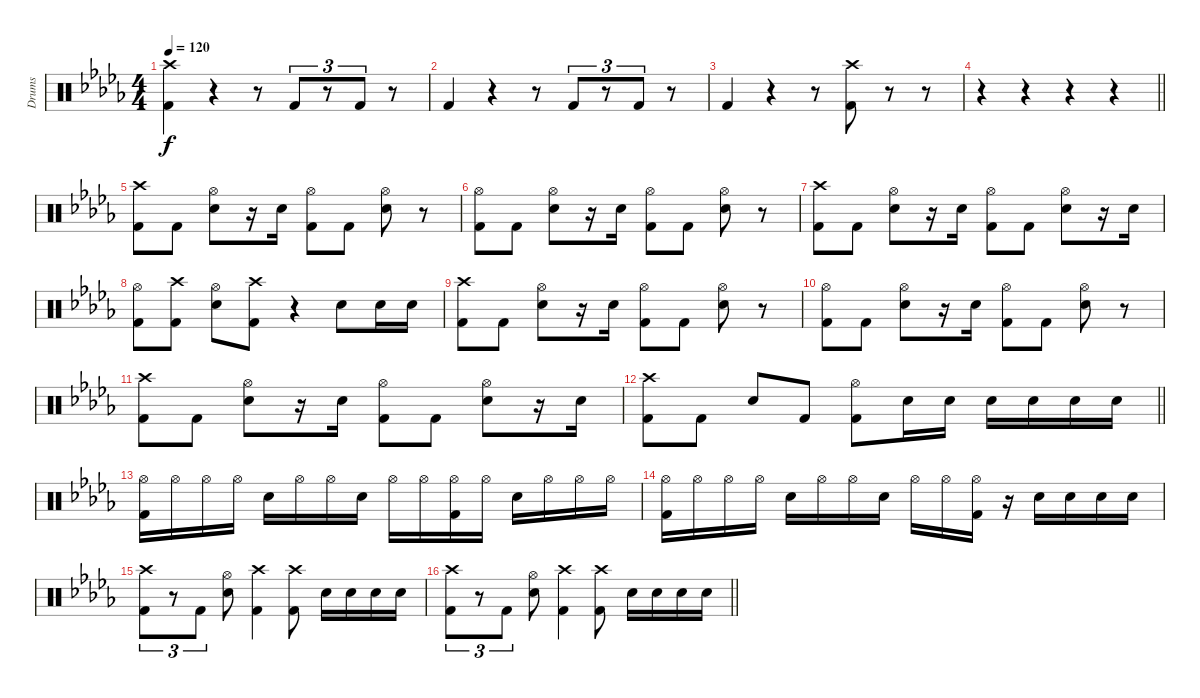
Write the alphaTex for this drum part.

\track ("Drums" "Drums") {instrument percussion}
\staff {score}
\articulation defaults
\ts (4 4)
\tempo 120
\clef neutral
\ks db
("Crash high (hit)" "Kick (hit) 2").4{dy f} r.4 r.8 "Kick (hit) 2".8{tu (3 2)} r.8{tu (3 2)} "Kick (hit) 2".8{tu (3 2)} r.8 |
"Kick (hit) 2".4 r.4 r.8 "Kick (hit) 2".8{tu (3 2)} r.8{tu (3 2)} "Kick (hit) 2".8{tu (3 2)} r.8 |
"Kick (hit) 2".4 r.4 r.8 ("Crash high (hit)" "Kick (hit) 2").8 r.8 r.8 |
\barLineRight lightlight
r.4 r.4 r.4 r.4 |
("Crash high (hit)" "Kick (hit) 2").8 "Kick (hit) 2".8 ("Hi-Hat (open)" "Snare (hit) 2").8 r.16 "Snare (hit) 2".16 ("Hi-Hat (open)" "Kick (hit) 2").8 "Kick (hit) 2".8 ("Hi-Hat (open)" "Snare (hit) 2").8 r.8 |
("Hi-Hat (open)" "Kick (hit) 2").8 "Kick (hit) 2".8 ("Hi-Hat (open)" "Snare (hit) 2").8 r.16 "Snare (hit) 2".16 ("Hi-Hat (open)" "Kick (hit) 2").8 "Kick (hit) 2".8 ("Hi-Hat (open)" "Snare (hit) 2").8 r.8 |
("Crash high (hit)" "Kick (hit) 2").8 "Kick (hit) 2".8 ("Hi-Hat (open)" "Snare (hit) 2").8 r.16 "Snare (hit) 2".16 ("Hi-Hat (open)" "Kick (hit) 2").8 "Kick (hit) 2".8 ("Hi-Hat (open)" "Snare (hit) 2").8 r.16 "Snare (hit) 2".16 |
("Hi-Hat (open)" "Kick (hit) 2").8 ("Crash high (hit)" "Kick (hit) 2").8 ("Hi-Hat (open)" "Snare (hit) 2").8 ("Crash high (hit)" "Kick (hit) 2").8 r.4 "Snare (hit) 2".8 "Snare (hit) 2".16 "Snare (hit) 2".16 |
("Crash high (hit)" "Kick (hit) 2").8 "Kick (hit) 2".8 ("Hi-Hat (open)" "Snare (hit) 2").8 r.16 "Snare (hit) 2".16 ("Hi-Hat (open)" "Kick (hit) 2").8 "Kick (hit) 2".8 ("Hi-Hat (open)" "Snare (hit) 2").8 r.8 |
("Hi-Hat (open)" "Kick (hit) 2").8 "Kick (hit) 2".8 ("Hi-Hat (open)" "Snare (hit) 2").8 r.16 "Snare (hit) 2".16 ("Hi-Hat (open)" "Kick (hit) 2").8 "Kick (hit) 2".8 ("Hi-Hat (open)" "Snare (hit) 2").8 r.8 |
("Crash high (hit)" "Kick (hit) 2").8 "Kick (hit) 2".8 ("Hi-Hat (open)" "Snare (hit) 2").8 r.16 "Snare (hit) 2".16 ("Hi-Hat (open)" "Kick (hit) 2").8 "Kick (hit) 2".8 ("Hi-Hat (open)" "Snare (hit) 2").8 r.16 "Snare (hit) 2".16 |
\barLineRight lightlight
("Crash high (hit)" "Kick (hit) 2").8 "Kick (hit) 2".8 "Snare (hit) 2".8 "Kick (hit) 2".8 ("Hi-Hat (open)" "Kick (hit) 2").8 "Snare (hit) 2".16 "Snare (hit) 2".16 "Snare (hit) 2".16 "Snare (hit) 2".16 "Snare (hit) 2".16 "Snare (hit) 2".16 |
("Hi-Hat (open)" "Kick (hit) 2").16 "Hi-Hat (open)".16 "Hi-Hat (open)".16 "Hi-Hat (open)".16 "Snare (hit) 2".16 "Hi-Hat (open)".16 "Hi-Hat (open)".16 "Snare (hit) 2".16 "Hi-Hat (open)".16 "Hi-Hat (open)".16 ("Hi-Hat (open)" "Kick (hit) 2").16 "Hi-Hat (open)".16 "Snare (hit) 2".16 "Hi-Hat (open)".16 "Hi-Hat (open)".16 "Hi-Hat (open)".16 |
("Hi-Hat (open)" "Kick (hit) 2").16 "Hi-Hat (open)".16 "Hi-Hat (open)".16 "Hi-Hat (open)".16 "Snare (hit) 2".16 "Hi-Hat (open)".16 "Hi-Hat (open)".16 "Snare (hit) 2".16 "Hi-Hat (open)".16 "Hi-Hat (open)".16 ("Hi-Hat (open)" "Kick (hit) 2").16 r.16 "Snare (hit) 2".16 "Snare (hit) 2".16 "Snare (hit) 2".16 "Snare (hit) 2".16 |
("Crash high (hit)" "Kick (hit) 2").8{tu (3 2)} r.8{tu (3 2)} "Kick (hit) 2".8{tu (3 2)} ("Hi-Hat (open)" "Snare (hit) 2").8 ("Crash high (hit)" "Kick (hit) 2").4 ("Crash high (hit)" "Kick (hit) 2").8 "Snare (hit) 2".16 "Snare (hit) 2".16 "Snare (hit) 2".16 "Snare (hit) 2".16 |
\barLineRight lightlight
("Crash high (hit)" "Kick (hit) 2").8{tu (3 2)} r.8{tu (3 2)} "Kick (hit) 2".8{tu (3 2)} ("Hi-Hat (open)" "Snare (hit) 2").8 ("Crash high (hit)" "Kick (hit) 2").4 ("Crash high (hit)" "Kick (hit) 2").8 "Snare (hit) 2".16 "Snare (hit) 2".16 "Snare (hit) 2".16 "Snare (hit) 2".16
